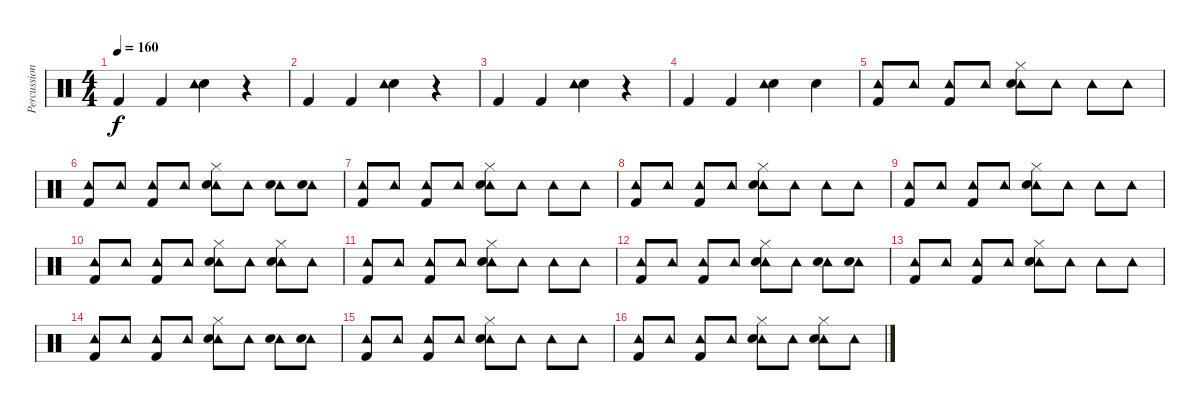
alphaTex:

\track ("Percussion" "Percussion") {instrument percussion}
\staff {score}
\articulation defaults
\ts (4 4)
\tempo 160
\clef neutral
\ks c "Kick (hit) 2".4{dy f} "Kick (hit) 2".4
("Snare (hit) 2" "Tambourine (hit)").4 r.4 |
"Kick (hit) 2".4 "Kick (hit) 2".4 ("Snare (hit) 2" "Tambourine (hit)").4 r.4 |
"Kick (hit) 2".4 "Kick (hit) 2".4 ("Snare (hit) 2" "Tambourine (hit)").4 r.4 |
"Kick (hit) 2".4 "Kick (hit) 2".4 ("Snare (hit) 2" "Tambourine (hit)").4 "Snare (hit) 2".4 |
("Tambourine (hit)" "Kick (hit) 2").8 "Tambourine (hit)".8 ("Tambourine (hit)" "Kick (hit) 2").8 "Tambourine (hit)".8 ("Tambourine (hit)" "Snare (hit) 2" "Hi-Hat (closed)").8 "Tambourine (hit)".8 "Tambourine (hit)".8 "Tambourine (hit)".8 |
("Tambourine (hit)" "Kick (hit) 2").8 "Tambourine (hit)".8 ("Tambourine (hit)" "Kick (hit) 2").8 "Tambourine (hit)".8 ("Tambourine (hit)" "Snare (hit) 2" "Hi-Hat (closed)").8 "Tambourine (hit)".8 ("Tambourine (hit)" "Snare (hit) 2").8 ("Tambourine (hit)" "Snare (hit) 2").8 |
("Tambourine (hit)" "Kick (hit) 2").8 "Tambourine (hit)".8 ("Tambourine (hit)" "Kick (hit) 2").8 "Tambourine (hit)".8 ("Tambourine (hit)" "Snare (hit) 2" "Hi-Hat (closed)").8 "Tambourine (hit)".8 "Tambourine (hit)".8 "Tambourine (hit)".8 |
("Tambourine (hit)" "Kick (hit) 2").8 "Tambourine (hit)".8 ("Tambourine (hit)" "Kick (hit) 2").8 "Tambourine (hit)".8 ("Tambourine (hit)" "Snare (hit) 2" "Hi-Hat (closed)").8 "Tambourine (hit)".8 "Tambourine (hit)".8 "Tambourine (hit)".8 |
("Tambourine (hit)" "Kick (hit) 2").8 "Tambourine (hit)".8 ("Tambourine (hit)" "Kick (hit) 2").8 "Tambourine (hit)".8 ("Tambourine (hit)" "Snare (hit) 2" "Hi-Hat (closed)").8 "Tambourine (hit)".8 "Tambourine (hit)".8 "Tambourine (hit)".8 |
("Tambourine (hit)" "Kick (hit) 2").8 "Tambourine (hit)".8 ("Tambourine (hit)" "Kick (hit) 2").8 "Tambourine (hit)".8 ("Tambourine (hit)" "Snare (hit) 2" "Hi-Hat (closed)").8 "Tambourine (hit)".8 ("Tambourine (hit)" "Snare (hit) 2" "Hi-Hat (closed)").8 "Tambourine (hit)".8 |
("Tambourine (hit)" "Kick (hit) 2").8 "Tambourine (hit)".8 ("Tambourine (hit)" "Kick (hit) 2").8 "Tambourine (hit)".8 ("Tambourine (hit)" "Snare (hit) 2" "Hi-Hat (closed)").8 "Tambourine (hit)".8 "Tambourine (hit)".8 "Tambourine (hit)".8 |
("Tambourine (hit)" "Kick (hit) 2").8 "Tambourine (hit)".8 ("Tambourine (hit)" "Kick (hit) 2").8 "Tambourine (hit)".8 ("Tambourine (hit)" "Snare (hit) 2" "Hi-Hat (closed)").8 "Tambourine (hit)".8 ("Tambourine (hit)" "Snare (hit) 2").8 ("Tambourine (hit)" "Snare (hit) 2").8 |
("Tambourine (hit)" "Kick (hit) 2").8 "Tambourine (hit)".8 ("Tambourine (hit)" "Kick (hit) 2").8 "Tambourine (hit)".8 ("Tambourine (hit)" "Snare (hit) 2" "Hi-Hat (closed)").8 "Tambourine (hit)".8 "Tambourine (hit)".8 "Tambourine (hit)".8 |
("Tambourine (hit)" "Kick (hit) 2").8 "Tambourine (hit)".8 ("Tambourine (hit)" "Kick (hit) 2").8 "Tambourine (hit)".8 ("Tambourine (hit)" "Snare (hit) 2" "Hi-Hat (closed)").8 "Tambourine (hit)".8 ("Tambourine (hit)" "Snare (hit) 2").8 ("Tambourine (hit)" "Snare (hit) 2").8 |
("Tambourine (hit)" "Kick (hit) 2").8 "Tambourine (hit)".8 ("Tambourine (hit)" "Kick (hit) 2").8 "Tambourine (hit)".8 ("Tambourine (hit)" "Snare (hit) 2" "Hi-Hat (closed)").8 "Tambourine (hit)".8 "Tambourine (hit)".8 "Tambourine (hit)".8 |
("Tambourine (hit)" "Kick (hit) 2").8 "Tambourine (hit)".8 ("Tambourine (hit)" "Kick (hit) 2").8 "Tambourine (hit)".8 ("Tambourine (hit)" "Snare (hit) 2" "Hi-Hat (closed)").8 "Tambourine (hit)".8 ("Tambourine (hit)" "Snare (hit) 2" "Hi-Hat (closed)").8 "Tambourine (hit)".8
